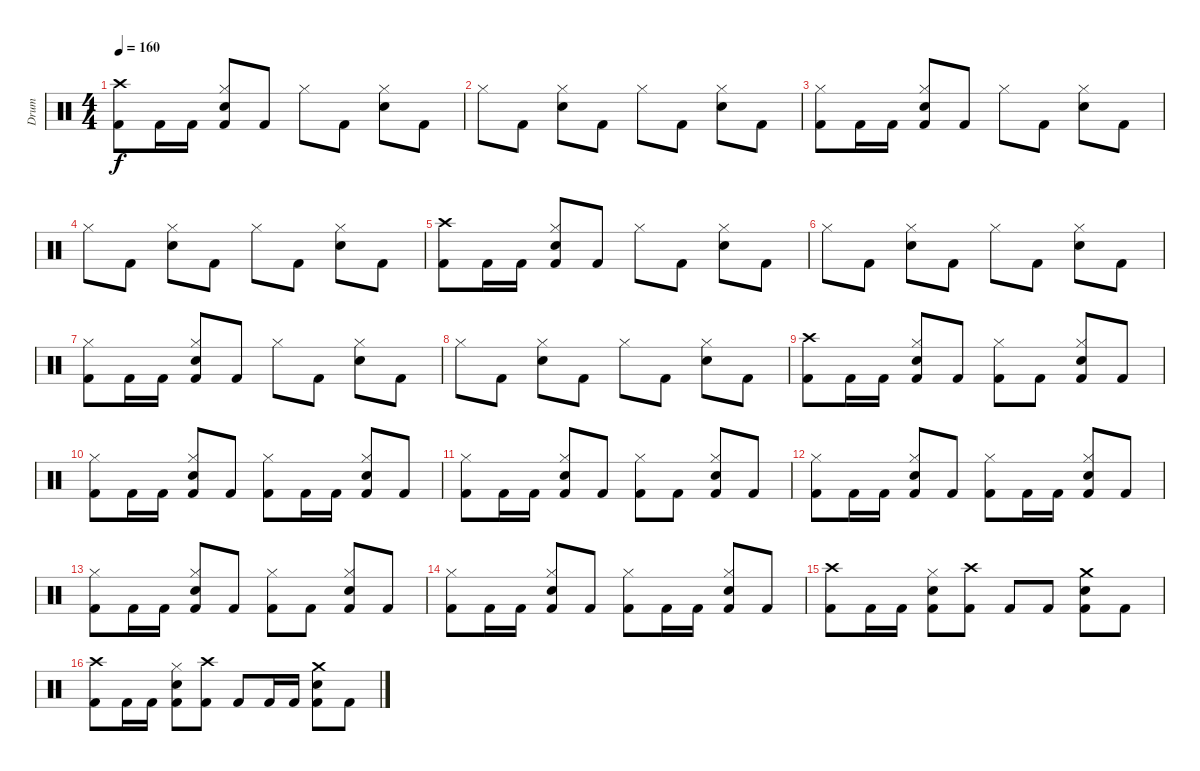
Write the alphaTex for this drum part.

\track ("Drum" "Drum") {instrument percussion}
\staff {score}
\articulation defaults
\ts (4 4)
\tempo 160
\clef neutral
\ks c
("Crash high (hit)" "Kick (hit) 2").8{dy f} "Kick (hit) 2".16 "Kick (hit) 2".16 ("Hi-Hat (closed)" "Electric Snare (hit)" "Kick (hit) 2").8 "Kick (hit) 2".8 "Hi-Hat (closed)".8 "Kick (hit) 2".8 ("Hi-Hat (closed)" "Electric Snare (hit)").8 "Kick (hit) 2".8 |
"Hi-Hat (closed)".8 "Kick (hit) 2".8 ("Hi-Hat (closed)" "Electric Snare (hit)").8 "Kick (hit) 2".8 "Hi-Hat (closed)".8 "Kick (hit) 2".8 ("Hi-Hat (closed)" "Electric Snare (hit)").8 "Kick (hit) 2".8 |
("Hi-Hat (closed)" "Kick (hit) 2").8 "Kick (hit) 2".16 "Kick (hit) 2".16 ("Hi-Hat (closed)" "Electric Snare (hit)" "Kick (hit) 2").8 "Kick (hit) 2".8 "Hi-Hat (closed)".8 "Kick (hit) 2".8 ("Hi-Hat (closed)" "Electric Snare (hit)").8 "Kick (hit) 2".8 |
"Hi-Hat (closed)".8 "Kick (hit) 2".8 ("Hi-Hat (closed)" "Electric Snare (hit)").8 "Kick (hit) 2".8 "Hi-Hat (closed)".8 "Kick (hit) 2".8 ("Hi-Hat (closed)" "Electric Snare (hit)").8 "Kick (hit) 2".8 |
("Crash high (hit)" "Kick (hit) 2").8 "Kick (hit) 2".16 "Kick (hit) 2".16 ("Hi-Hat (closed)" "Electric Snare (hit)" "Kick (hit) 2").8 "Kick (hit) 2".8 "Hi-Hat (closed)".8 "Kick (hit) 2".8 ("Hi-Hat (closed)" "Electric Snare (hit)").8 "Kick (hit) 2".8 |
"Hi-Hat (closed)".8 "Kick (hit) 2".8 ("Hi-Hat (closed)" "Electric Snare (hit)").8 "Kick (hit) 2".8 "Hi-Hat (closed)".8 "Kick (hit) 2".8 ("Hi-Hat (closed)" "Electric Snare (hit)").8 "Kick (hit) 2".8 |
("Hi-Hat (closed)" "Kick (hit) 2").8 "Kick (hit) 2".16 "Kick (hit) 2".16 ("Hi-Hat (closed)" "Electric Snare (hit)" "Kick (hit) 2").8 "Kick (hit) 2".8 "Hi-Hat (closed)".8 "Kick (hit) 2".8 ("Hi-Hat (closed)" "Electric Snare (hit)").8 "Kick (hit) 2".8 |
"Hi-Hat (closed)".8 "Kick (hit) 2".8 ("Hi-Hat (closed)" "Electric Snare (hit)").8 "Kick (hit) 2".8 "Hi-Hat (closed)".8 "Kick (hit) 2".8 ("Hi-Hat (closed)" "Electric Snare (hit)").8 "Kick (hit) 2".8 |
("Crash high (hit)" "Kick (hit) 2").8 "Kick (hit) 2".16 "Kick (hit) 2".16 ("Hi-Hat (closed)" "Electric Snare (hit)" "Kick (hit) 2").8 "Kick (hit) 2".8 ("Hi-Hat (closed)" "Kick (hit) 2").8 "Kick (hit) 2".8 ("Hi-Hat (closed)" "Electric Snare (hit)" "Kick (hit) 2").8 "Kick (hit) 2".8 |
("Hi-Hat (closed)" "Kick (hit) 2").8 "Kick (hit) 2".16 "Kick (hit) 2".16 ("Hi-Hat (closed)" "Electric Snare (hit)" "Kick (hit) 2").8 "Kick (hit) 2".8 ("Hi-Hat (closed)" "Kick (hit) 2").8 "Kick (hit) 2".16 "Kick (hit) 2".16 ("Hi-Hat (closed)" "Electric Snare (hit)" "Kick (hit) 2").8 "Kick (hit) 2".8 |
("Hi-Hat (closed)" "Kick (hit) 2").8 "Kick (hit) 2".16 "Kick (hit) 2".16 ("Hi-Hat (closed)" "Electric Snare (hit)" "Kick (hit) 2").8 "Kick (hit) 2".8 ("Hi-Hat (closed)" "Kick (hit) 2").8 "Kick (hit) 2".8 ("Hi-Hat (closed)" "Electric Snare (hit)" "Kick (hit) 2").8 "Kick (hit) 2".8 |
("Hi-Hat (closed)" "Kick (hit) 2").8 "Kick (hit) 2".16 "Kick (hit) 2".16 ("Hi-Hat (closed)" "Electric Snare (hit)" "Kick (hit) 2").8 "Kick (hit) 2".8 ("Hi-Hat (closed)" "Kick (hit) 2").8 "Kick (hit) 2".16 "Kick (hit) 2".16 ("Hi-Hat (closed)" "Electric Snare (hit)" "Kick (hit) 2").8 "Kick (hit) 2".8 |
("Hi-Hat (closed)" "Kick (hit) 2").8 "Kick (hit) 2".16 "Kick (hit) 2".16 ("Hi-Hat (closed)" "Electric Snare (hit)" "Kick (hit) 2").8 "Kick (hit) 2".8 ("Hi-Hat (closed)" "Kick (hit) 2").8 "Kick (hit) 2".8 ("Hi-Hat (closed)" "Electric Snare (hit)" "Kick (hit) 2").8 "Kick (hit) 2".8 |
("Hi-Hat (closed)" "Kick (hit) 2").8 "Kick (hit) 2".16 "Kick (hit) 2".16 ("Hi-Hat (closed)" "Electric Snare (hit)" "Kick (hit) 2").8 "Kick (hit) 2".8 ("Hi-Hat (closed)" "Kick (hit) 2").8 "Kick (hit) 2".16 "Kick (hit) 2".16 ("Hi-Hat (closed)" "Electric Snare (hit)" "Kick (hit) 2").8 "Kick (hit) 2".8 |
("Crash high (hit)" "Kick (hit) 2").8 "Kick (hit) 2".16 "Kick (hit) 2".16 ("Hi-Hat (closed)" "Electric Snare (hit)" "Kick (hit) 2").8 ("Crash high (hit)" "Kick (hit) 2").8 "Kick (hit) 2".8 "Kick (hit) 2".8 ("Crash medium (hit)" "Electric Snare (hit)" "Kick (hit) 2").8 "Kick (hit) 2".8 |
("Crash high (hit)" "Kick (hit) 2").8 "Kick (hit) 2".16 "Kick (hit) 2".16 ("Hi-Hat (closed)" "Electric Snare (hit)" "Kick (hit) 2").8 ("Crash high (hit)" "Kick (hit) 2").8 "Kick (hit) 2".8 "Kick (hit) 2".16 "Kick (hit) 2".16 ("Crash medium (hit)" "Electric Snare (hit)" "Kick (hit) 2").8 "Kick (hit) 2".8
